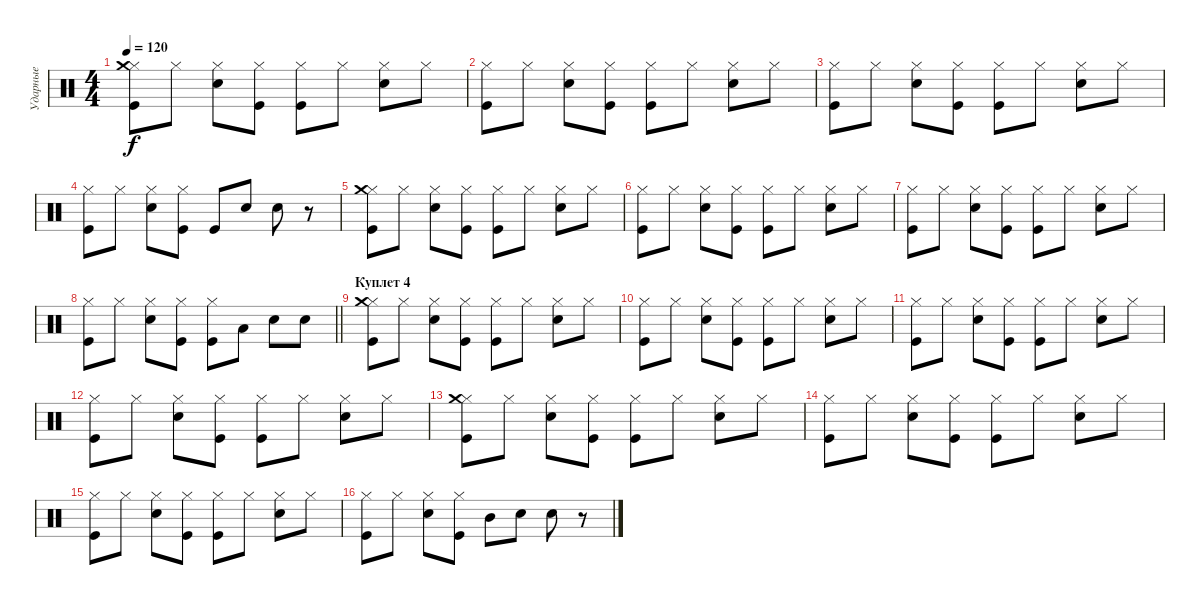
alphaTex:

\track ("Ударные" "Ударные") {instrument percussion}
\staff {score}
\articulation defaults
\ts (4 4)
\tempo 120
\clef neutral
\ks c
("Kick (hit)" "Hi-Hat (closed)" "Crash medium (hit)").8{dy f} "Hi-Hat (closed)".8 ("Snare (hit) 2" "Hi-Hat (closed)").8 ("Kick (hit)" "Hi-Hat (closed)").8 ("Hi-Hat (closed)" "Kick (hit)").8 "Hi-Hat (closed)".8 ("Snare (hit) 2" "Hi-Hat (closed)").8 "Hi-Hat (closed)".8 |
("Kick (hit)" "Hi-Hat (closed)").8 "Hi-Hat (closed)".8 ("Snare (hit) 2" "Hi-Hat (closed)").8 ("Kick (hit)" "Hi-Hat (closed)").8 ("Hi-Hat (closed)" "Kick (hit)").8 "Hi-Hat (closed)".8 ("Snare (hit) 2" "Hi-Hat (closed)").8 "Hi-Hat (closed)".8 |
("Kick (hit)" "Hi-Hat (closed)").8 "Hi-Hat (closed)".8 ("Snare (hit) 2" "Hi-Hat (closed)").8 ("Kick (hit)" "Hi-Hat (closed)").8 ("Hi-Hat (closed)" "Kick (hit)").8 "Hi-Hat (closed)".8 ("Snare (hit) 2" "Hi-Hat (closed)").8 "Hi-Hat (closed)".8 |
("Kick (hit)" "Hi-Hat (closed)").8 "Hi-Hat (closed)".8 ("Snare (hit) 2" "Hi-Hat (closed)").8 ("Kick (hit)" "Hi-Hat (closed)").8 "Kick (hit)".8 "Snare (hit) 2".8 "Snare (hit) 2".8 r.8 |
("Kick (hit)" "Hi-Hat (closed)" "Crash medium (hit)").8 "Hi-Hat (closed)".8 ("Snare (hit) 2" "Hi-Hat (closed)").8 ("Kick (hit)" "Hi-Hat (closed)").8 ("Hi-Hat (closed)" "Kick (hit)").8 "Hi-Hat (closed)".8 ("Snare (hit) 2" "Hi-Hat (closed)").8 "Hi-Hat (closed)".8 |
("Kick (hit)" "Hi-Hat (closed)").8 "Hi-Hat (closed)".8 ("Snare (hit) 2" "Hi-Hat (closed)").8 ("Kick (hit)" "Hi-Hat (closed)").8 ("Hi-Hat (closed)" "Kick (hit)").8 "Hi-Hat (closed)".8 ("Snare (hit) 2" "Hi-Hat (closed)").8 "Hi-Hat (closed)".8 |
("Kick (hit)" "Hi-Hat (closed)").8 "Hi-Hat (closed)".8 ("Snare (hit) 2" "Hi-Hat (closed)").8 ("Kick (hit)" "Hi-Hat (closed)").8 ("Hi-Hat (closed)" "Kick (hit)").8 "Hi-Hat (closed)".8 ("Snare (hit) 2" "Hi-Hat (closed)").8 "Hi-Hat (closed)".8 |
\barLineRight lightlight
("Kick (hit)" "Hi-Hat (closed)").8 "Hi-Hat (closed)".8 ("Snare (hit) 2" "Hi-Hat (closed)").8 ("Kick (hit)" "Hi-Hat (closed)").8 ("Hi-Hat (closed)" "Kick (hit)").8 "Low Tom (hit)".8 "Electric Snare (hit)".8 "Electric Snare (hit)".8 |
\section ("" "Куплет 4")
("Kick (hit)" "Hi-Hat (closed)" "Crash medium (hit)").8 "Hi-Hat (closed)".8 ("Snare (hit) 2" "Hi-Hat (closed)").8 ("Kick (hit)" "Hi-Hat (closed)").8 ("Hi-Hat (closed)" "Kick (hit)").8 "Hi-Hat (closed)".8 ("Snare (hit) 2" "Hi-Hat (closed)").8 "Hi-Hat (closed)".8 |
("Kick (hit)" "Hi-Hat (closed)").8 "Hi-Hat (closed)".8 ("Snare (hit) 2" "Hi-Hat (closed)").8 ("Kick (hit)" "Hi-Hat (closed)").8 ("Hi-Hat (closed)" "Kick (hit)").8 "Hi-Hat (closed)".8 ("Snare (hit) 2" "Hi-Hat (closed)").8 "Hi-Hat (closed)".8 |
("Kick (hit)" "Hi-Hat (closed)").8 "Hi-Hat (closed)".8 ("Snare (hit) 2" "Hi-Hat (closed)").8 ("Kick (hit)" "Hi-Hat (closed)").8 ("Hi-Hat (closed)" "Kick (hit)").8 "Hi-Hat (closed)".8 ("Snare (hit) 2" "Hi-Hat (closed)").8 "Hi-Hat (closed)".8 |
("Kick (hit)" "Hi-Hat (closed)").8 "Hi-Hat (closed)".8 ("Snare (hit) 2" "Hi-Hat (closed)").8 ("Kick (hit)" "Hi-Hat (closed)").8 ("Hi-Hat (closed)" "Kick (hit)").8 "Hi-Hat (closed)".8 ("Snare (hit) 2" "Hi-Hat (closed)").8 "Hi-Hat (closed)".8 |
("Kick (hit)" "Hi-Hat (closed)" "Crash medium (hit)").8 "Hi-Hat (closed)".8 ("Snare (hit) 2" "Hi-Hat (closed)").8 ("Kick (hit)" "Hi-Hat (closed)").8 ("Hi-Hat (closed)" "Kick (hit)").8 "Hi-Hat (closed)".8 ("Snare (hit) 2" "Hi-Hat (closed)").8 "Hi-Hat (closed)".8 |
("Kick (hit)" "Hi-Hat (closed)").8 "Hi-Hat (closed)".8 ("Snare (hit) 2" "Hi-Hat (closed)").8 ("Kick (hit)" "Hi-Hat (closed)").8 ("Hi-Hat (closed)" "Kick (hit)").8 "Hi-Hat (closed)".8 ("Snare (hit) 2" "Hi-Hat (closed)").8 "Hi-Hat (closed)".8 |
("Kick (hit)" "Hi-Hat (closed)").8 "Hi-Hat (closed)".8 ("Snare (hit) 2" "Hi-Hat (closed)").8 ("Kick (hit)" "Hi-Hat (closed)").8 ("Hi-Hat (closed)" "Kick (hit)").8 "Hi-Hat (closed)".8 ("Snare (hit) 2" "Hi-Hat (closed)").8 "Hi-Hat (closed)".8 |
("Kick (hit)" "Hi-Hat (closed)").8 "Hi-Hat (closed)".8 ("Snare (hit) 2" "Hi-Hat (closed)").8 ("Kick (hit)" "Hi-Hat (closed)").8 "Mid Tom (hit)".8 "Snare (hit) 2".8 "Snare (hit) 2".8 r.8
